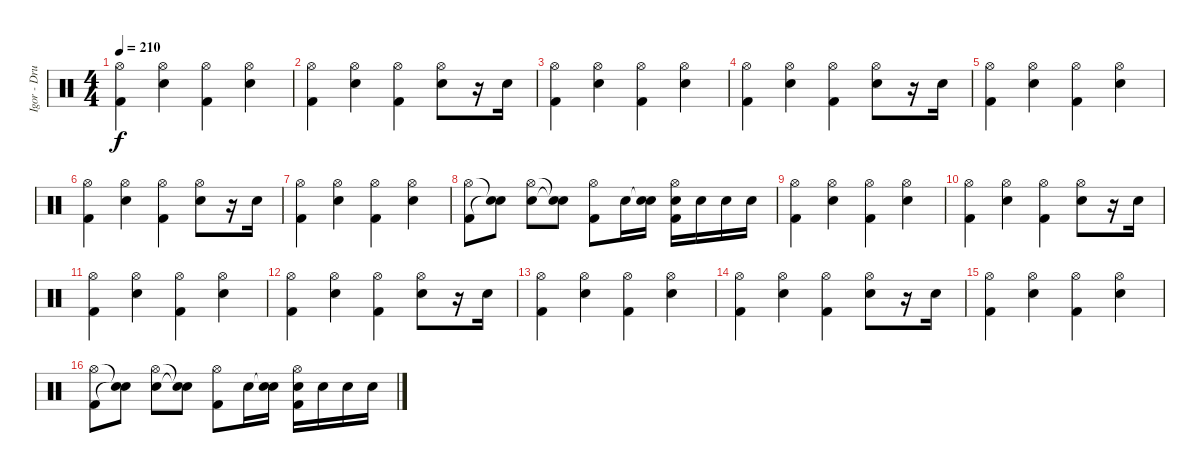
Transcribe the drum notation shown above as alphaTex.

\track ("Igor - Drums" "Igor - Dru") {instrument percussion}
\staff {score}
\articulation defaults
\ts (4 4)
\tempo 210
\clef neutral
\ks c
("Hi-Hat (open)" "Kick (hit) 2").4{dy f} ("Hi-Hat (open)" "Snare (hit) 2").4 ("Hi-Hat (open)" "Kick (hit) 2").4 ("Hi-Hat (open)" "Snare (hit) 2").4 |
("Hi-Hat (open)" "Kick (hit) 2").4 ("Hi-Hat (open)" "Snare (hit) 2").4 ("Hi-Hat (open)" "Kick (hit) 2").4 ("Hi-Hat (open)" "Snare (hit) 2").8 r.16 "Snare (hit) 2".16 |
("Hi-Hat (open)" "Kick (hit) 2").4 ("Hi-Hat (open)" "Snare (hit) 2").4 ("Hi-Hat (open)" "Kick (hit) 2").4 ("Hi-Hat (open)" "Snare (hit) 2").4 |
("Hi-Hat (open)" "Kick (hit) 2").4 ("Hi-Hat (open)" "Snare (hit) 2").4 ("Hi-Hat (open)" "Kick (hit) 2").4 ("Hi-Hat (open)" "Snare (hit) 2").8 r.16 "Snare (hit) 2".16 |
("Hi-Hat (open)" "Kick (hit) 2").4 ("Hi-Hat (open)" "Snare (hit) 2").4 ("Hi-Hat (open)" "Kick (hit) 2").4 ("Hi-Hat (open)" "Snare (hit) 2").4 |
("Hi-Hat (open)" "Kick (hit) 2").4 ("Hi-Hat (open)" "Snare (hit) 2").4 ("Hi-Hat (open)" "Kick (hit) 2").4 ("Hi-Hat (open)" "Snare (hit) 2").8 r.16 "Snare (hit) 2".16 |
("Hi-Hat (open)" "Kick (hit) 2").4 ("Hi-Hat (open)" "Snare (hit) 2").4 ("Hi-Hat (open)" "Kick (hit) 2").4 ("Hi-Hat (open)" "Snare (hit) 2").4 |
("Hi-Hat (open)" "Kick (hit) 2").8 ("Snare (hit)"{t} "Snare (hit)"{t}).8 ("Hi-Hat (open)" "Snare (hit) 2").8 ("Snare (hit)"{t} "Snare (hit)"{t}).8 ("Hi-Hat (open)" "Kick (hit) 2").8 "Snare (hit) 2".16 ("Snare (hit)"{t} "Snare (hit) 2").16 ("Hi-Hat (open)" "Snare (hit) 2" "Kick (hit) 2").16 "Snare (hit) 2".16 "Snare (hit) 2".16 "Snare (hit) 2".16 |
("Hi-Hat (open)" "Kick (hit) 2").4 ("Hi-Hat (open)" "Snare (hit) 2").4 ("Hi-Hat (open)" "Kick (hit) 2").4 ("Hi-Hat (open)" "Snare (hit) 2").4 |
("Hi-Hat (open)" "Kick (hit) 2").4 ("Hi-Hat (open)" "Snare (hit) 2").4 ("Hi-Hat (open)" "Kick (hit) 2").4 ("Hi-Hat (open)" "Snare (hit) 2").8 r.16 "Snare (hit) 2".16 |
("Hi-Hat (open)" "Kick (hit) 2").4 ("Hi-Hat (open)" "Snare (hit) 2").4 ("Hi-Hat (open)" "Kick (hit) 2").4 ("Hi-Hat (open)" "Snare (hit) 2").4 |
("Hi-Hat (open)" "Kick (hit) 2").4 ("Hi-Hat (open)" "Snare (hit) 2").4 ("Hi-Hat (open)" "Kick (hit) 2").4 ("Hi-Hat (open)" "Snare (hit) 2").8 r.16 "Snare (hit) 2".16 |
("Hi-Hat (open)" "Kick (hit) 2").4 ("Hi-Hat (open)" "Snare (hit) 2").4 ("Hi-Hat (open)" "Kick (hit) 2").4 ("Hi-Hat (open)" "Snare (hit) 2").4 |
("Hi-Hat (open)" "Kick (hit) 2").4 ("Hi-Hat (open)" "Snare (hit) 2").4 ("Hi-Hat (open)" "Kick (hit) 2").4 ("Hi-Hat (open)" "Snare (hit) 2").8 r.16 "Snare (hit) 2".16 |
("Hi-Hat (open)" "Kick (hit) 2").4 ("Hi-Hat (open)" "Snare (hit) 2").4 ("Hi-Hat (open)" "Kick (hit) 2").4 ("Hi-Hat (open)" "Snare (hit) 2").4 |
("Hi-Hat (open)" "Kick (hit) 2").8 ("Snare (hit)"{t} "Snare (hit)"{t}).8 ("Hi-Hat (open)" "Snare (hit) 2").8 ("Snare (hit)"{t} "Snare (hit)"{t}).8 ("Hi-Hat (open)" "Kick (hit) 2").8 "Snare (hit) 2".16 ("Snare (hit)"{t} "Snare (hit) 2").16 ("Hi-Hat (open)" "Snare (hit) 2" "Kick (hit) 2").16 "Snare (hit) 2".16 "Snare (hit) 2".16 "Snare (hit) 2".16
